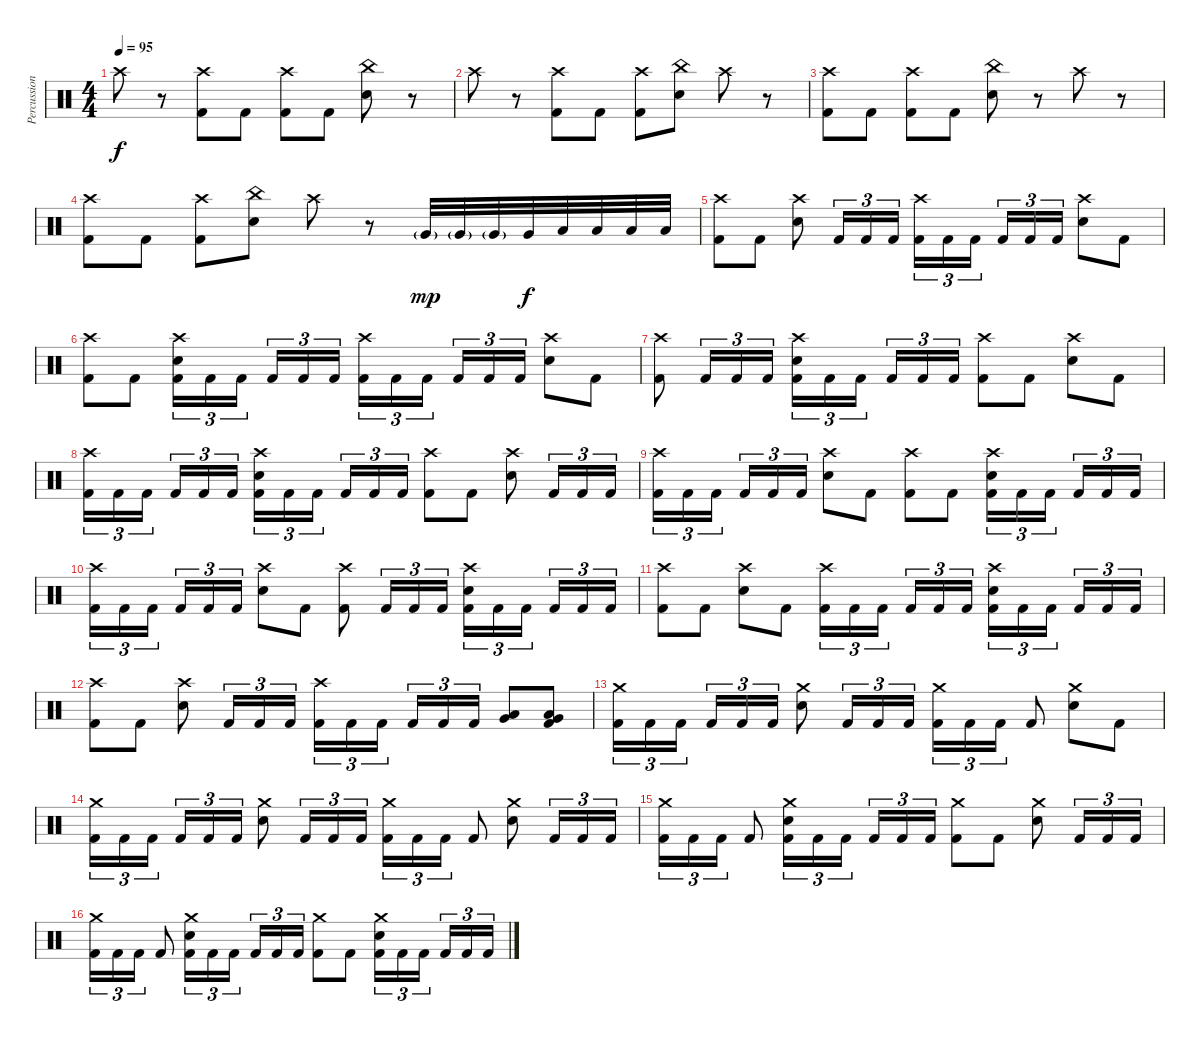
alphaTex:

\track ("Percussion" "Percussion") {instrument percussion}
\staff {score}
\articulation defaults
\ts (4 4)
\tempo 95
\clef neutral
\ks c "Crash high (hit)".8{dy f}
r.8 ("Crash high (hit)" "Kick (hit) 2").8 "Kick (hit) 2".8 ("Crash high (hit)" "Kick (hit) 2").8 "Kick (hit) 2".8 ("China (hit)" "Electric Snare (hit)").8 r.8 |
"Crash high (hit)".8 r.8 ("Crash high (hit)" "Kick (hit) 2").8 "Kick (hit) 2".8 ("Crash high (hit)" "Kick (hit) 2").8 ("China (hit)" "Electric Snare (hit)").8 "Crash high (hit)".8 r.8 |
("Crash high (hit)" "Kick (hit) 2").8 "Kick (hit) 2".8 ("Crash high (hit)" "Kick (hit) 2").8 "Kick (hit) 2".8 ("China (hit)" "Electric Snare (hit)").8 r.8 "Crash high (hit)".8 r.8 |
("Crash high (hit)" "Kick (hit) 2").8 "Kick (hit) 2".8 ("Crash high (hit)" "Kick (hit) 2").8 ("China (hit)" "Electric Snare (hit)").8 "Crash high (hit)".8 r.8 "Very Low Tom (hit)"{g}.32{dy mp} "Very Low Tom (hit)"{g}.32 "Very Low Tom (hit)"{g}.32 "Very Low Tom (hit)".32{dy f} "Low Tom (hit)".32 "Low Tom (hit)".32 "Low Tom (hit)".32 "Low Tom (hit)".32 |
("Crash high (hit)" "Kick (hit) 2").8 "Kick (hit) 2".8 ("Crash high (hit)" "Electric Snare (hit)").8 "Kick (hit) 2".16{tu (3 2)} "Kick (hit) 2".16{tu (3 2)} "Kick (hit) 2".16{tu (3 2)} ("Crash high (hit)" "Kick (hit) 2").16{tu (3 2)} "Kick (hit) 2".16{tu (3 2)} "Kick (hit) 2".16{tu (3 2) beam splitsecondary} "Kick (hit) 2".16{tu (3 2)} "Kick (hit) 2".16{tu (3 2)} "Kick (hit) 2".16{tu (3 2)} ("Crash high (hit)" "Electric Snare (hit)").8 "Kick (hit) 2".8 |
("Crash high (hit)" "Kick (hit) 2").8 "Kick (hit) 2".8 ("Crash high (hit)" "Electric Snare (hit)" "Kick (hit) 2").16{tu (3 2)} "Kick (hit) 2".16{tu (3 2)} "Kick (hit) 2".16{tu (3 2) beam splitsecondary} "Kick (hit) 2".16{tu (3 2)} "Kick (hit) 2".16{tu (3 2)} "Kick (hit) 2".16{tu (3 2)} ("Crash high (hit)" "Kick (hit) 2").16{tu (3 2)} "Kick (hit) 2".16{tu (3 2)} "Kick (hit) 2".16{tu (3 2) beam splitsecondary} "Kick (hit) 2".16{tu (3 2)} "Kick (hit) 2".16{tu (3 2)} "Kick (hit) 2".16{tu (3 2)} ("Crash high (hit)" "Electric Snare (hit)").8 "Kick (hit) 2".8 |
("Crash high (hit)" "Kick (hit) 2").8 "Kick (hit) 2".16{tu (3 2)} "Kick (hit) 2".16{tu (3 2)} "Kick (hit) 2".16{tu (3 2)} ("Crash high (hit)" "Electric Snare (hit)" "Kick (hit) 2").16{tu (3 2)} "Kick (hit) 2".16{tu (3 2)} "Kick (hit) 2".16{tu (3 2) beam splitsecondary} "Kick (hit) 2".16{tu (3 2)} "Kick (hit) 2".16{tu (3 2)} "Kick (hit) 2".16{tu (3 2)} ("Crash high (hit)" "Kick (hit) 2").8 "Kick (hit) 2".8 ("Crash high (hit)" "Electric Snare (hit)").8 "Kick (hit) 2".8 |
("Crash high (hit)" "Kick (hit) 2").16{tu (3 2)} "Kick (hit) 2".16{tu (3 2)} "Kick (hit) 2".16{tu (3 2) beam splitsecondary} "Kick (hit) 2".16{tu (3 2)} "Kick (hit) 2".16{tu (3 2)} "Kick (hit) 2".16{tu (3 2)} ("Crash high (hit)" "Electric Snare (hit)" "Kick (hit) 2").16{tu (3 2)} "Kick (hit) 2".16{tu (3 2)} "Kick (hit) 2".16{tu (3 2) beam splitsecondary} "Kick (hit) 2".16{tu (3 2)} "Kick (hit) 2".16{tu (3 2)} "Kick (hit) 2".16{tu (3 2)} ("Crash high (hit)" "Kick (hit) 2").8 "Kick (hit) 2".8 ("Crash high (hit)" "Electric Snare (hit)").8 "Kick (hit) 2".16{tu (3 2)} "Kick (hit) 2".16{tu (3 2)} "Kick (hit) 2".16{tu (3 2)} |
("Crash high (hit)" "Kick (hit) 2").16{tu (3 2)} "Kick (hit) 2".16{tu (3 2)} "Kick (hit) 2".16{tu (3 2) beam splitsecondary} "Kick (hit) 2".16{tu (3 2)} "Kick (hit) 2".16{tu (3 2)} "Kick (hit) 2".16{tu (3 2)} ("Crash high (hit)" "Electric Snare (hit)").8 "Kick (hit) 2".8 ("Crash high (hit)" "Kick (hit) 2").8 "Kick (hit) 2".8 ("Crash high (hit)" "Electric Snare (hit)" "Kick (hit) 2").16{tu (3 2)} "Kick (hit) 2".16{tu (3 2)} "Kick (hit) 2".16{tu (3 2) beam splitsecondary} "Kick (hit) 2".16{tu (3 2)} "Kick (hit) 2".16{tu (3 2)} "Kick (hit) 2".16{tu (3 2)} |
("Crash high (hit)" "Kick (hit) 2").16{tu (3 2)} "Kick (hit) 2".16{tu (3 2)} "Kick (hit) 2".16{tu (3 2) beam splitsecondary} "Kick (hit) 2".16{tu (3 2)} "Kick (hit) 2".16{tu (3 2)} "Kick (hit) 2".16{tu (3 2)} ("Crash high (hit)" "Electric Snare (hit)").8 "Kick (hit) 2".8 ("Crash high (hit)" "Kick (hit) 2").8 "Kick (hit) 2".16{tu (3 2)} "Kick (hit) 2".16{tu (3 2)} "Kick (hit) 2".16{tu (3 2)} ("Crash high (hit)" "Electric Snare (hit)" "Kick (hit) 2").16{tu (3 2)} "Kick (hit) 2".16{tu (3 2)} "Kick (hit) 2".16{tu (3 2) beam splitsecondary} "Kick (hit) 2".16{tu (3 2)} "Kick (hit) 2".16{tu (3 2)} "Kick (hit) 2".16{tu (3 2)} |
("Crash high (hit)" "Kick (hit) 2").8 "Kick (hit) 2".8 ("Crash high (hit)" "Electric Snare (hit)").8 "Kick (hit) 2".8 ("Crash high (hit)" "Kick (hit) 2").16{tu (3 2)} "Kick (hit) 2".16{tu (3 2)} "Kick (hit) 2".16{tu (3 2) beam splitsecondary} "Kick (hit) 2".16{tu (3 2)} "Kick (hit) 2".16{tu (3 2)} "Kick (hit) 2".16{tu (3 2)} ("Crash high (hit)" "Electric Snare (hit)" "Kick (hit) 2").16{tu (3 2)} "Kick (hit) 2".16{tu (3 2)} "Kick (hit) 2".16{tu (3 2) beam splitsecondary} "Kick (hit) 2".16{tu (3 2)} "Kick (hit) 2".16{tu (3 2)} "Kick (hit) 2".16{tu (3 2)} |
("Crash high (hit)" "Kick (hit) 2").8 "Kick (hit) 2".8 ("Crash high (hit)" "Electric Snare (hit)").8 "Kick (hit) 2".16{tu (3 2)} "Kick (hit) 2".16{tu (3 2)} "Kick (hit) 2".16{tu (3 2)} ("Crash high (hit)" "Kick (hit) 2").16{tu (3 2)} "Kick (hit) 2".16{tu (3 2)} "Kick (hit) 2".16{tu (3 2) beam splitsecondary} "Kick (hit) 2".16{tu (3 2)} "Kick (hit) 2".16{tu (3 2)} "Kick (hit) 2".16{tu (3 2)} ("Very Low Tom (hit)" "Low Floor Tom (hit)").8 ("Very Low Tom (hit)" "Low Floor Tom (hit)" "Kick (hit) 2").8 |
("Crash medium (hit)" "Kick (hit) 2").16{tu (3 2)} "Kick (hit) 2".16{tu (3 2)} "Kick (hit) 2".16{tu (3 2) beam splitsecondary} "Kick (hit) 2".16{tu (3 2)} "Kick (hit) 2".16{tu (3 2)} "Kick (hit) 2".16{tu (3 2)} ("Crash medium (hit)" "Electric Snare (hit)").8 "Kick (hit) 2".16{tu (3 2)} "Kick (hit) 2".16{tu (3 2)} "Kick (hit) 2".16{tu (3 2)} ("Crash medium (hit)" "Kick (hit) 2").16{tu (3 2)} "Kick (hit) 2".16{tu (3 2)} "Kick (hit) 2".16{tu (3 2)} "Kick (hit) 2".8 ("Crash medium (hit)" "Electric Snare (hit)").8 "Kick (hit) 2".8 |
("Crash medium (hit)" "Kick (hit) 2").16{tu (3 2)} "Kick (hit) 2".16{tu (3 2)} "Kick (hit) 2".16{tu (3 2) beam splitsecondary} "Kick (hit) 2".16{tu (3 2)} "Kick (hit) 2".16{tu (3 2)} "Kick (hit) 2".16{tu (3 2)} ("Crash medium (hit)" "Electric Snare (hit)").8 "Kick (hit) 2".16{tu (3 2)} "Kick (hit) 2".16{tu (3 2)} "Kick (hit) 2".16{tu (3 2)} ("Crash medium (hit)" "Kick (hit) 2").16{tu (3 2)} "Kick (hit) 2".16{tu (3 2)} "Kick (hit) 2".16{tu (3 2)} "Kick (hit) 2".8 ("Crash medium (hit)" "Electric Snare (hit)").8 "Kick (hit) 2".16{tu (3 2)} "Kick (hit) 2".16{tu (3 2)} "Kick (hit) 2".16{tu (3 2)} |
("Crash medium (hit)" "Kick (hit) 2").16{tu (3 2)} "Kick (hit) 2".16{tu (3 2)} "Kick (hit) 2".16{tu (3 2)} "Kick (hit) 2".8 ("Crash medium (hit)" "Electric Snare (hit)" "Kick (hit) 2").16{tu (3 2)} "Kick (hit) 2".16{tu (3 2)} "Kick (hit) 2".16{tu (3 2) beam splitsecondary} "Kick (hit) 2".16{tu (3 2)} "Kick (hit) 2".16{tu (3 2)} "Kick (hit) 2".16{tu (3 2)} ("Crash medium (hit)" "Kick (hit) 2").8 "Kick (hit) 2".8 ("Crash medium (hit)" "Electric Snare (hit)").8 "Kick (hit) 2".16{tu (3 2)} "Kick (hit) 2".16{tu (3 2)} "Kick (hit) 2".16{tu (3 2)} |
("Crash medium (hit)" "Kick (hit) 2").16{tu (3 2)} "Kick (hit) 2".16{tu (3 2)} "Kick (hit) 2".16{tu (3 2)} "Kick (hit) 2".8 ("Crash medium (hit)" "Electric Snare (hit)" "Kick (hit) 2").16{tu (3 2)} "Kick (hit) 2".16{tu (3 2)} "Kick (hit) 2".16{tu (3 2) beam splitsecondary} "Kick (hit) 2".16{tu (3 2)} "Kick (hit) 2".16{tu (3 2)} "Kick (hit) 2".16{tu (3 2)} ("Crash medium (hit)" "Kick (hit) 2").8 "Kick (hit) 2".8 ("Crash medium (hit)" "Electric Snare (hit)" "Kick (hit) 2").16{tu (3 2)} "Kick (hit) 2".16{tu (3 2)} "Kick (hit) 2".16{tu (3 2) beam splitsecondary} "Kick (hit) 2".16{tu (3 2)} "Kick (hit) 2".16{tu (3 2)} "Kick (hit) 2".16{tu (3 2)}
